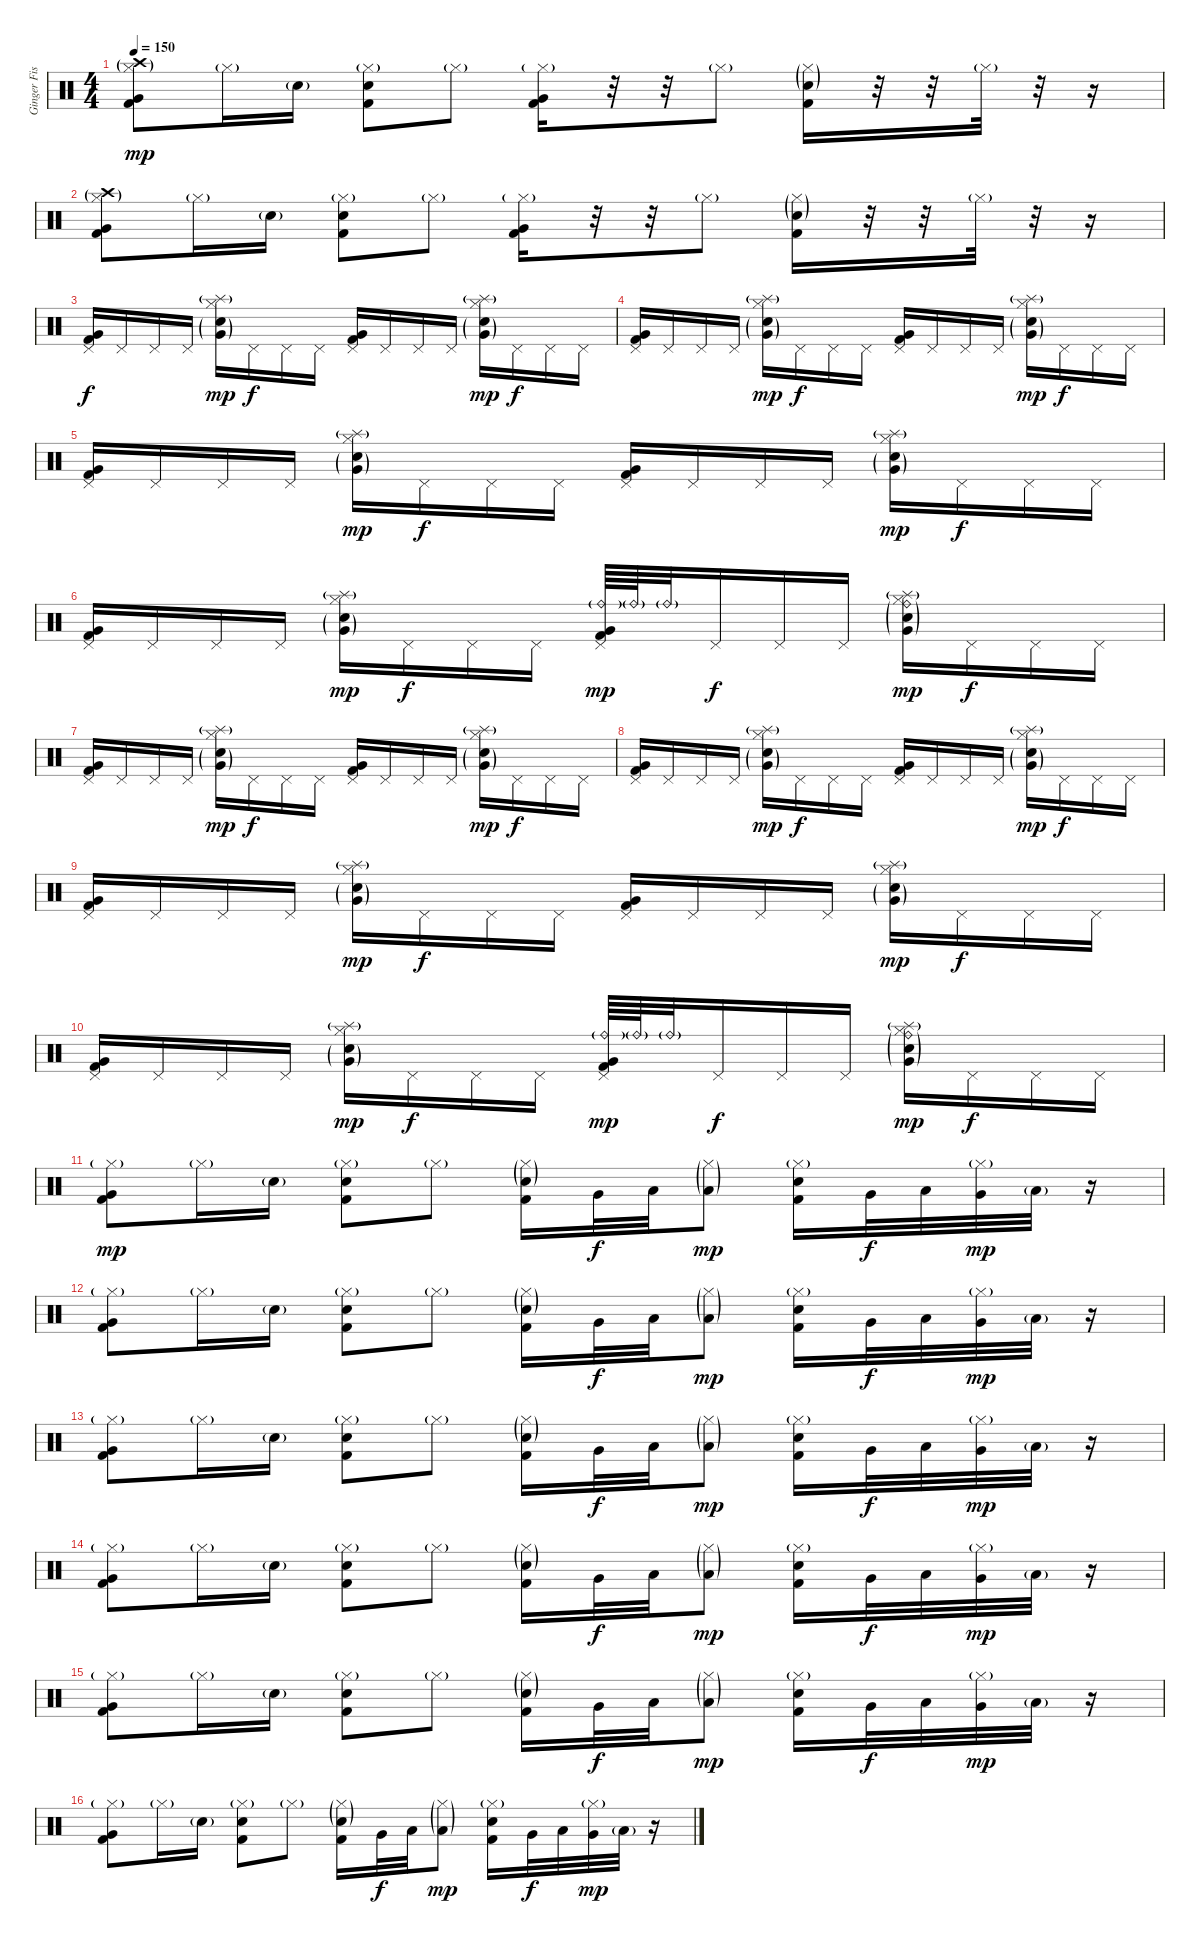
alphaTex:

\track ("Ginger Fish" "Ginger Fis") {instrument percussion}
\staff {score}
\articulation defaults
\ts (4 4)
\tempo 150
\clef neutral
\ks c
("Hi-Hat (closed)"{g} "Crash high (hit)"{g} "Very Low Tom (hit)" "Kick (hit) 2").8{dy mp} "Hi-Hat (closed)"{g}.16 "Electric Snare (hit)"{g}.16 ("Hi-Hat (closed)"{g} "Electric Snare (hit)" "Kick (hit) 2").8 "Hi-Hat (closed)"{g}.8 ("Hi-Hat (closed)"{g} "Very Low Tom (hit)" "Kick (hit) 2").16 r.32 r.32 "Hi-Hat (closed)"{g}.8 ("Hi-Hat (closed)"{g} "Electric Snare (hit)"{g} "Kick (hit) 2").16 r.32 r.32 "Hi-Hat (closed)"{g}.32 r.32 r.16 |
("Hi-Hat (closed)"{g} "Crash high (hit)"{g} "Very Low Tom (hit)" "Kick (hit) 2").8 "Hi-Hat (closed)"{g}.16 "Electric Snare (hit)"{g}.16 ("Hi-Hat (closed)"{g} "Electric Snare (hit)" "Kick (hit) 2").8 "Hi-Hat (closed)"{g}.8 ("Hi-Hat (closed)"{g} "Very Low Tom (hit)" "Kick (hit) 2").16 r.32 r.32 "Hi-Hat (closed)"{g}.8 ("Hi-Hat (closed)"{g} "Electric Snare (hit)"{g} "Kick (hit) 2").16 r.32 r.32 "Hi-Hat (closed)"{g}.32 r.32 r.16 |
("Pedal Hi-Hat (hit)" "Very Low Tom (hit)" "Kick (hit) 2").16{dy f} "Pedal Hi-Hat (hit)".16 "Pedal Hi-Hat (hit)".16 "Pedal Hi-Hat (hit)".16 ("Hi-Hat (closed)" "Splash (hit)"{g} "Electric Snare (hit)"{g} "Very Low Tom (hit)"{g}).16{dy mp} "Pedal Hi-Hat (hit)".16{dy f} "Pedal Hi-Hat (hit)".16 "Pedal Hi-Hat (hit)".16 ("Pedal Hi-Hat (hit)" "Very Low Tom (hit)" "Kick (hit) 2").16 "Pedal Hi-Hat (hit)".16 "Pedal Hi-Hat (hit)".16 "Pedal Hi-Hat (hit)".16 ("Hi-Hat (closed)" "Splash (hit)"{g} "Electric Snare (hit)"{g} "Very Low Tom (hit)"{g}).16{dy mp} "Pedal Hi-Hat (hit)".16{dy f} "Pedal Hi-Hat (hit)".16 "Pedal Hi-Hat (hit)".16 |
("Pedal Hi-Hat (hit)" "Very Low Tom (hit)" "Kick (hit) 2").16 "Pedal Hi-Hat (hit)".16 "Pedal Hi-Hat (hit)".16 "Pedal Hi-Hat (hit)".16 ("Hi-Hat (closed)" "Splash (hit)"{g} "Electric Snare (hit)"{g} "Very Low Tom (hit)"{g}).16{dy mp} "Pedal Hi-Hat (hit)".16{dy f} "Pedal Hi-Hat (hit)".16 "Pedal Hi-Hat (hit)".16 ("Pedal Hi-Hat (hit)" "Very Low Tom (hit)" "Kick (hit) 2").16 "Pedal Hi-Hat (hit)".16 "Pedal Hi-Hat (hit)".16 "Pedal Hi-Hat (hit)".16 ("Hi-Hat (closed)" "Splash (hit)"{g} "Electric Snare (hit)"{g} "Very Low Tom (hit)"{g}).16{dy mp} "Pedal Hi-Hat (hit)".16{dy f} "Pedal Hi-Hat (hit)".16 "Pedal Hi-Hat (hit)".16 |
("Pedal Hi-Hat (hit)" "Very Low Tom (hit)" "Kick (hit) 2").16 "Pedal Hi-Hat (hit)".16 "Pedal Hi-Hat (hit)".16 "Pedal Hi-Hat (hit)".16 ("Hi-Hat (closed)" "Splash (hit)"{g} "Electric Snare (hit)"{g} "Very Low Tom (hit)"{g}).16{dy mp} "Pedal Hi-Hat (hit)".16{dy f} "Pedal Hi-Hat (hit)".16 "Pedal Hi-Hat (hit)".16 ("Pedal Hi-Hat (hit)" "Very Low Tom (hit)" "Kick (hit) 2").16 "Pedal Hi-Hat (hit)".16 "Pedal Hi-Hat (hit)".16 "Pedal Hi-Hat (hit)".16 ("Hi-Hat (closed)" "Splash (hit)"{g} "Electric Snare (hit)"{g} "Very Low Tom (hit)"{g}).16{dy mp} "Pedal Hi-Hat (hit)".16{dy f} "Pedal Hi-Hat (hit)".16 "Pedal Hi-Hat (hit)".16 |
("Pedal Hi-Hat (hit)" "Very Low Tom (hit)" "Kick (hit) 2").16 "Pedal Hi-Hat (hit)".16 "Pedal Hi-Hat (hit)".16 "Pedal Hi-Hat (hit)".16 ("Hi-Hat (closed)" "Splash (hit)"{g} "Electric Snare (hit)"{g} "Very Low Tom (hit)"{g}).16{dy mp} "Pedal Hi-Hat (hit)".16{dy f} "Pedal Hi-Hat (hit)".16 "Pedal Hi-Hat (hit)".16 ("Pedal Hi-Hat (hit)" "Ride (bell)"{g} "Very Low Tom (hit)" "Kick (hit) 2").64{dy mp} "Ride (bell)"{g}.64 "Ride (bell)"{g}.32 "Pedal Hi-Hat (hit)".16{dy f} "Pedal Hi-Hat (hit)".16 "Pedal Hi-Hat (hit)".16 ("Hi-Hat (closed)" "Splash (hit)"{g} "Ride (bell)"{g} "Electric Snare (hit)"{g} "Very Low Tom (hit)"{g}).16{dy mp} "Pedal Hi-Hat (hit)".16{dy f} "Pedal Hi-Hat (hit)".16 "Pedal Hi-Hat (hit)".16 |
("Pedal Hi-Hat (hit)" "Very Low Tom (hit)" "Kick (hit) 2").16 "Pedal Hi-Hat (hit)".16 "Pedal Hi-Hat (hit)".16 "Pedal Hi-Hat (hit)".16 ("Hi-Hat (closed)" "Splash (hit)"{g} "Electric Snare (hit)"{g} "Very Low Tom (hit)"{g}).16{dy mp} "Pedal Hi-Hat (hit)".16{dy f} "Pedal Hi-Hat (hit)".16 "Pedal Hi-Hat (hit)".16 ("Pedal Hi-Hat (hit)" "Very Low Tom (hit)" "Kick (hit) 2").16 "Pedal Hi-Hat (hit)".16 "Pedal Hi-Hat (hit)".16 "Pedal Hi-Hat (hit)".16 ("Hi-Hat (closed)" "Splash (hit)"{g} "Electric Snare (hit)"{g} "Very Low Tom (hit)"{g}).16{dy mp} "Pedal Hi-Hat (hit)".16{dy f} "Pedal Hi-Hat (hit)".16 "Pedal Hi-Hat (hit)".16 |
("Pedal Hi-Hat (hit)" "Very Low Tom (hit)" "Kick (hit) 2").16 "Pedal Hi-Hat (hit)".16 "Pedal Hi-Hat (hit)".16 "Pedal Hi-Hat (hit)".16 ("Hi-Hat (closed)" "Splash (hit)"{g} "Electric Snare (hit)"{g} "Very Low Tom (hit)"{g}).16{dy mp} "Pedal Hi-Hat (hit)".16{dy f} "Pedal Hi-Hat (hit)".16 "Pedal Hi-Hat (hit)".16 ("Pedal Hi-Hat (hit)" "Very Low Tom (hit)" "Kick (hit) 2").16 "Pedal Hi-Hat (hit)".16 "Pedal Hi-Hat (hit)".16 "Pedal Hi-Hat (hit)".16 ("Hi-Hat (closed)" "Splash (hit)"{g} "Electric Snare (hit)"{g} "Very Low Tom (hit)"{g}).16{dy mp} "Pedal Hi-Hat (hit)".16{dy f} "Pedal Hi-Hat (hit)".16 "Pedal Hi-Hat (hit)".16 |
("Pedal Hi-Hat (hit)" "Very Low Tom (hit)" "Kick (hit) 2").16 "Pedal Hi-Hat (hit)".16 "Pedal Hi-Hat (hit)".16 "Pedal Hi-Hat (hit)".16 ("Hi-Hat (closed)" "Splash (hit)"{g} "Electric Snare (hit)"{g} "Very Low Tom (hit)"{g}).16{dy mp} "Pedal Hi-Hat (hit)".16{dy f} "Pedal Hi-Hat (hit)".16 "Pedal Hi-Hat (hit)".16 ("Pedal Hi-Hat (hit)" "Very Low Tom (hit)" "Kick (hit) 2").16 "Pedal Hi-Hat (hit)".16 "Pedal Hi-Hat (hit)".16 "Pedal Hi-Hat (hit)".16 ("Hi-Hat (closed)" "Splash (hit)"{g} "Electric Snare (hit)"{g} "Very Low Tom (hit)"{g}).16{dy mp} "Pedal Hi-Hat (hit)".16{dy f} "Pedal Hi-Hat (hit)".16 "Pedal Hi-Hat (hit)".16 |
("Pedal Hi-Hat (hit)" "Very Low Tom (hit)" "Kick (hit) 2").16 "Pedal Hi-Hat (hit)".16 "Pedal Hi-Hat (hit)".16 "Pedal Hi-Hat (hit)".16 ("Hi-Hat (closed)" "Splash (hit)"{g} "Electric Snare (hit)"{g} "Very Low Tom (hit)"{g}).16{dy mp} "Pedal Hi-Hat (hit)".16{dy f} "Pedal Hi-Hat (hit)".16 "Pedal Hi-Hat (hit)".16 ("Pedal Hi-Hat (hit)" "Ride (bell)"{g} "Very Low Tom (hit)" "Kick (hit) 2").64{dy mp} "Ride (bell)"{g}.64 "Ride (bell)"{g}.32 "Pedal Hi-Hat (hit)".16{dy f} "Pedal Hi-Hat (hit)".16 "Pedal Hi-Hat (hit)".16 ("Hi-Hat (closed)" "Splash (hit)"{g} "Ride (bell)"{g} "Electric Snare (hit)"{g} "Very Low Tom (hit)"{g}).16{dy mp} "Pedal Hi-Hat (hit)".16{dy f} "Pedal Hi-Hat (hit)".16 "Pedal Hi-Hat (hit)".16 |
("Hi-Hat (closed)"{g} "Very Low Tom (hit)" "Kick (hit) 2").8{dy mp} "Hi-Hat (closed)"{g}.16 "Electric Snare (hit)"{g}.16 ("Hi-Hat (closed)"{g} "Electric Snare (hit)" "Kick (hit) 2").8 "Hi-Hat (closed)"{g}.8 ("Hi-Hat (closed)"{g} "Snare (hit) 2"{g} "Kick (hit) 2").16 "Very Low Tom (hit)".32{dy f} "Low Floor Tom (hit)".32 ("Hi-Hat (closed)"{g} "Low Floor Tom (hit)"{g}).8{dy mp} ("Hi-Hat (closed)"{g} "Snare (hit) 2" "Kick (hit) 2").16 "Very Low Tom (hit)".32{dy f} "Low Floor Tom (hit)".32 ("Hi-Hat (closed)"{g} "Very Low Tom (hit)").32{dy mp} "Low Floor Tom (hit)"{g}.32 r.16 |
("Hi-Hat (closed)"{g} "Very Low Tom (hit)" "Kick (hit) 2").8 "Hi-Hat (closed)"{g}.16 "Electric Snare (hit)"{g}.16 ("Hi-Hat (closed)"{g} "Electric Snare (hit)" "Kick (hit) 2").8 "Hi-Hat (closed)"{g}.8 ("Hi-Hat (closed)"{g} "Snare (hit) 2"{g} "Kick (hit) 2").16 "Very Low Tom (hit)".32{dy f} "Low Floor Tom (hit)".32 ("Hi-Hat (closed)"{g} "Low Floor Tom (hit)"{g}).8{dy mp} ("Hi-Hat (closed)"{g} "Snare (hit) 2" "Kick (hit) 2").16 "Very Low Tom (hit)".32{dy f} "Low Floor Tom (hit)".32 ("Hi-Hat (closed)"{g} "Very Low Tom (hit)").32{dy mp} "Low Floor Tom (hit)"{g}.32 r.16 |
("Hi-Hat (closed)"{g} "Very Low Tom (hit)" "Kick (hit) 2").8 "Hi-Hat (closed)"{g}.16 "Electric Snare (hit)"{g}.16 ("Hi-Hat (closed)"{g} "Electric Snare (hit)" "Kick (hit) 2").8 "Hi-Hat (closed)"{g}.8 ("Hi-Hat (closed)"{g} "Snare (hit) 2"{g} "Kick (hit) 2").16 "Very Low Tom (hit)".32{dy f} "Low Floor Tom (hit)".32 ("Hi-Hat (closed)"{g} "Low Floor Tom (hit)"{g}).8{dy mp} ("Hi-Hat (closed)"{g} "Snare (hit) 2" "Kick (hit) 2").16 "Very Low Tom (hit)".32{dy f} "Low Floor Tom (hit)".32 ("Hi-Hat (closed)"{g} "Very Low Tom (hit)").32{dy mp} "Low Floor Tom (hit)"{g}.32 r.16 |
("Hi-Hat (closed)"{g} "Very Low Tom (hit)" "Kick (hit) 2").8 "Hi-Hat (closed)"{g}.16 "Electric Snare (hit)"{g}.16 ("Hi-Hat (closed)"{g} "Electric Snare (hit)" "Kick (hit) 2").8 "Hi-Hat (closed)"{g}.8 ("Hi-Hat (closed)"{g} "Snare (hit) 2"{g} "Kick (hit) 2").16 "Very Low Tom (hit)".32{dy f} "Low Floor Tom (hit)".32 ("Hi-Hat (closed)"{g} "Low Floor Tom (hit)"{g}).8{dy mp} ("Hi-Hat (closed)"{g} "Snare (hit) 2" "Kick (hit) 2").16 "Very Low Tom (hit)".32{dy f} "Low Floor Tom (hit)".32 ("Hi-Hat (closed)"{g} "Very Low Tom (hit)").32{dy mp} "Low Floor Tom (hit)"{g}.32 r.16 |
("Hi-Hat (closed)"{g} "Very Low Tom (hit)" "Kick (hit) 2").8 "Hi-Hat (closed)"{g}.16 "Electric Snare (hit)"{g}.16 ("Hi-Hat (closed)"{g} "Electric Snare (hit)" "Kick (hit) 2").8 "Hi-Hat (closed)"{g}.8 ("Hi-Hat (closed)"{g} "Snare (hit) 2"{g} "Kick (hit) 2").16 "Very Low Tom (hit)".32{dy f} "Low Floor Tom (hit)".32 ("Hi-Hat (closed)"{g} "Low Floor Tom (hit)"{g}).8{dy mp} ("Hi-Hat (closed)"{g} "Snare (hit) 2" "Kick (hit) 2").16 "Very Low Tom (hit)".32{dy f} "Low Floor Tom (hit)".32 ("Hi-Hat (closed)"{g} "Very Low Tom (hit)").32{dy mp} "Low Floor Tom (hit)"{g}.32 r.16 |
("Hi-Hat (closed)"{g} "Very Low Tom (hit)" "Kick (hit) 2").8 "Hi-Hat (closed)"{g}.16 "Electric Snare (hit)"{g}.16 ("Hi-Hat (closed)"{g} "Electric Snare (hit)" "Kick (hit) 2").8 "Hi-Hat (closed)"{g}.8 ("Hi-Hat (closed)"{g} "Snare (hit) 2"{g} "Kick (hit) 2").16 "Very Low Tom (hit)".32{dy f} "Low Floor Tom (hit)".32 ("Hi-Hat (closed)"{g} "Low Floor Tom (hit)"{g}).8{dy mp} ("Hi-Hat (closed)"{g} "Snare (hit) 2" "Kick (hit) 2").16 "Very Low Tom (hit)".32{dy f} "Low Floor Tom (hit)".32 ("Hi-Hat (closed)"{g} "Very Low Tom (hit)").32{dy mp} "Low Floor Tom (hit)"{g}.32 r.16
